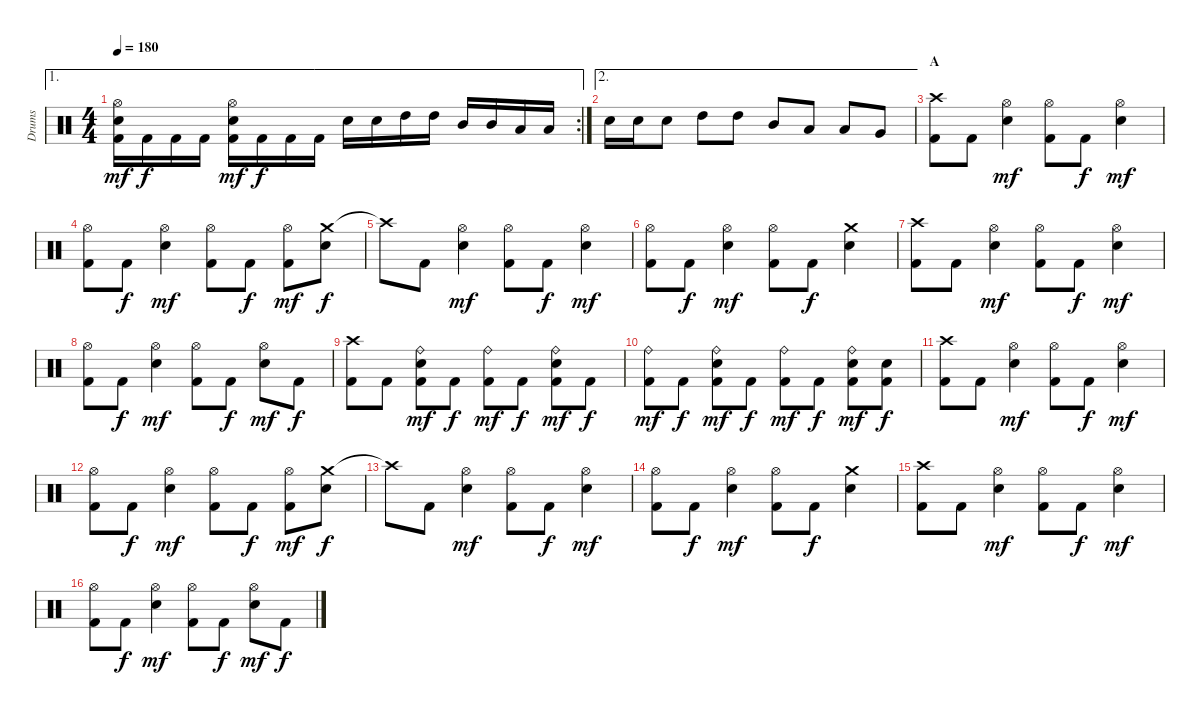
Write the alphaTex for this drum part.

\track ("Drums" "Drums") {instrument percussion}
\staff {score}
\articulation defaults
\ae 1
\rc 2
\ts (4 4)
\tempo 180
\clef neutral
\ks c
("Hi-Hat (open)" "Snare (hit) 2" "Kick (hit) 2").16{dy mf} "Kick (hit) 2".16{dy f} "Kick (hit) 2".16 "Kick (hit) 2".16 ("Hi-Hat (open)" "Snare (hit) 2" "Kick (hit) 2").16{dy mf} "Kick (hit) 2".16{dy f} "Kick (hit) 2".16 "Kick (hit) 2".16 "Snare (hit) 2".16 "Snare (hit) 2".16 "High Tom (hit)".16 "High Tom (hit)".16 "Mid Tom (hit)".16 "Mid Tom (hit)".16 "Low Tom (hit)".16 "Low Tom (hit)".16 |
\ae 2 "Snare (hit) 2".16 "Snare (hit) 2".16 "Snare (hit) 2".8 "High Tom (hit)".8 "High Tom (hit)".8 "Mid Tom (hit)".8 "Low Tom (hit)".8 "Low Tom (hit)".8 "Very Low Tom (hit)".8
|
\section ("" "A")
("Crash high (hit)" "Kick (hit) 2").8 "Kick (hit) 2".8 ("Hi-Hat (open)" "Snare (hit) 2").4{dy mf} ("Hi-Hat (open)" "Kick (hit) 2").8 "Kick (hit) 2".8{dy f} ("Hi-Hat (open)" "Snare (hit) 2").4{dy mf} |
("Hi-Hat (open)" "Kick (hit) 2").8 "Kick (hit) 2".8{dy f} ("Hi-Hat (open)" "Snare (hit) 2").4{dy mf} ("Hi-Hat (open)" "Kick (hit) 2").8 "Kick (hit) 2".8{dy f} ("Hi-Hat (open)" "Kick (hit) 2").8{dy mf} ("Crash medium (hit)" "Snare (hit) 2").8{dy f} |
"Crash high (hit)"{t}.8 "Kick (hit) 2".8 ("Hi-Hat (open)" "Snare (hit) 2").4{dy mf} ("Hi-Hat (open)" "Kick (hit) 2").8 "Kick (hit) 2".8{dy f} ("Hi-Hat (open)" "Snare (hit) 2").4{dy mf} |
("Hi-Hat (open)" "Kick (hit) 2").8 "Kick (hit) 2".8{dy f} ("Hi-Hat (open)" "Snare (hit) 2").4{dy mf} ("Hi-Hat (open)" "Kick (hit) 2").8 "Kick (hit) 2".8{dy f} ("Crash medium (hit)" "Snare (hit) 2").4 |
("Crash high (hit)" "Kick (hit) 2").8 "Kick (hit) 2".8 ("Hi-Hat (open)" "Snare (hit) 2").4{dy mf} ("Hi-Hat (open)" "Kick (hit) 2").8 "Kick (hit) 2".8{dy f} ("Hi-Hat (open)" "Snare (hit) 2").4{dy mf} |
("Hi-Hat (open)" "Kick (hit) 2").8 "Kick (hit) 2".8{dy f} ("Hi-Hat (open)" "Snare (hit) 2").4{dy mf} ("Hi-Hat (open)" "Kick (hit) 2").8 "Kick (hit) 2".8{dy f} ("Hi-Hat (open)" "Snare (hit) 2").8{dy mf} "Kick (hit) 2".8{dy f} |
("Crash high (hit)" "Kick (hit) 2").8 "Kick (hit) 2".8 ("Ride (bell)" "Snare (hit) 2" "Kick (hit) 2").8{dy mf} "Kick (hit) 2".8{dy f} ("Ride (bell)" "Kick (hit) 2").8{dy mf} "Kick (hit) 2".8{dy f} ("Ride (bell)" "Snare (hit) 2" "Kick (hit) 2").8{dy mf} "Kick (hit) 2".8{dy f} |
("Ride (bell)" "Kick (hit) 2").8{dy mf} "Kick (hit) 2".8{dy f} ("Ride (bell)" "Snare (hit) 2" "Kick (hit) 2").8{dy mf} "Kick (hit) 2".8{dy f} ("Ride (bell)" "Kick (hit) 2").8{dy mf} "Kick (hit) 2".8{dy f} ("Ride (bell)" "Snare (hit) 2" "Kick (hit) 2").8{dy mf} ("Snare (hit) 2" "Kick (hit) 2").8{dy f} |
("Crash high (hit)" "Kick (hit) 2").8 "Kick (hit) 2".8 ("Hi-Hat (open)" "Snare (hit) 2").4{dy mf} ("Hi-Hat (open)" "Kick (hit) 2").8 "Kick (hit) 2".8{dy f} ("Hi-Hat (open)" "Snare (hit) 2").4{dy mf} |
("Hi-Hat (open)" "Kick (hit) 2").8 "Kick (hit) 2".8{dy f} ("Hi-Hat (open)" "Snare (hit) 2").4{dy mf} ("Hi-Hat (open)" "Kick (hit) 2").8 "Kick (hit) 2".8{dy f} ("Hi-Hat (open)" "Kick (hit) 2").8{dy mf} ("Crash medium (hit)" "Snare (hit) 2").8{dy f} |
"Crash high (hit)"{t}.8 "Kick (hit) 2".8 ("Hi-Hat (open)" "Snare (hit) 2").4{dy mf} ("Hi-Hat (open)" "Kick (hit) 2").8 "Kick (hit) 2".8{dy f} ("Hi-Hat (open)" "Snare (hit) 2").4{dy mf} |
("Hi-Hat (open)" "Kick (hit) 2").8 "Kick (hit) 2".8{dy f} ("Hi-Hat (open)" "Snare (hit) 2").4{dy mf} ("Hi-Hat (open)" "Kick (hit) 2").8 "Kick (hit) 2".8{dy f} ("Crash medium (hit)" "Snare (hit) 2").4 |
("Crash high (hit)" "Kick (hit) 2").8 "Kick (hit) 2".8 ("Hi-Hat (open)" "Snare (hit) 2").4{dy mf} ("Hi-Hat (open)" "Kick (hit) 2").8 "Kick (hit) 2".8{dy f} ("Hi-Hat (open)" "Snare (hit) 2").4{dy mf} |
("Hi-Hat (open)" "Kick (hit) 2").8 "Kick (hit) 2".8{dy f} ("Hi-Hat (open)" "Snare (hit) 2").4{dy mf} ("Hi-Hat (open)" "Kick (hit) 2").8 "Kick (hit) 2".8{dy f} ("Hi-Hat (open)" "Snare (hit) 2").8{dy mf} "Kick (hit) 2".8{dy f}
